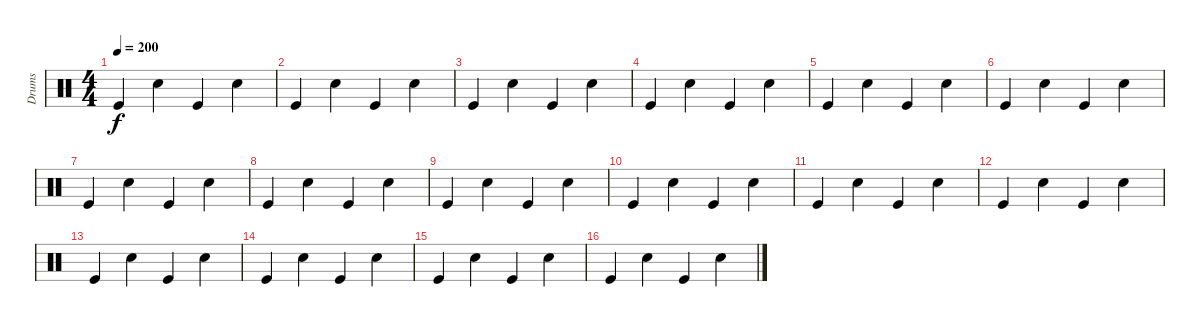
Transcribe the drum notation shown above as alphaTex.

\track ("Drums" "Drums") {instrument percussion}
\staff {score}
\articulation defaults
\ts (4 4)
\tempo 200
\clef neutral
\ks c "Kick (hit)".4{dy f} "Snare (hit) 2".4 "Kick (hit)".4 "Snare (hit) 2".4
|
"Kick (hit)".4 "Snare (hit) 2".4 "Kick (hit)".4 "Snare (hit) 2".4 |
"Kick (hit)".4 "Snare (hit) 2".4 "Kick (hit)".4 "Snare (hit) 2".4 |
"Kick (hit)".4 "Snare (hit) 2".4 "Kick (hit)".4 "Snare (hit) 2".4 |
"Kick (hit)".4 "Snare (hit) 2".4 "Kick (hit)".4 "Snare (hit) 2".4 |
"Kick (hit)".4 "Snare (hit) 2".4 "Kick (hit)".4 "Snare (hit) 2".4 |
"Kick (hit)".4 "Snare (hit) 2".4 "Kick (hit)".4 "Snare (hit) 2".4 |
"Kick (hit)".4 "Snare (hit) 2".4 "Kick (hit)".4 "Snare (hit) 2".4 |
"Kick (hit)".4 "Snare (hit) 2".4 "Kick (hit)".4 "Snare (hit) 2".4 |
"Kick (hit)".4 "Snare (hit) 2".4 "Kick (hit)".4 "Snare (hit) 2".4 |
"Kick (hit)".4 "Snare (hit) 2".4 "Kick (hit)".4 "Snare (hit) 2".4 |
"Kick (hit)".4 "Snare (hit) 2".4 "Kick (hit)".4 "Snare (hit) 2".4 |
"Kick (hit)".4 "Snare (hit) 2".4 "Kick (hit)".4 "Snare (hit) 2".4 |
"Kick (hit)".4 "Snare (hit) 2".4 "Kick (hit)".4 "Snare (hit) 2".4 |
"Kick (hit)".4 "Snare (hit) 2".4 "Kick (hit)".4 "Snare (hit) 2".4 |
"Kick (hit)".4 "Snare (hit) 2".4 "Kick (hit)".4 "Snare (hit) 2".4
